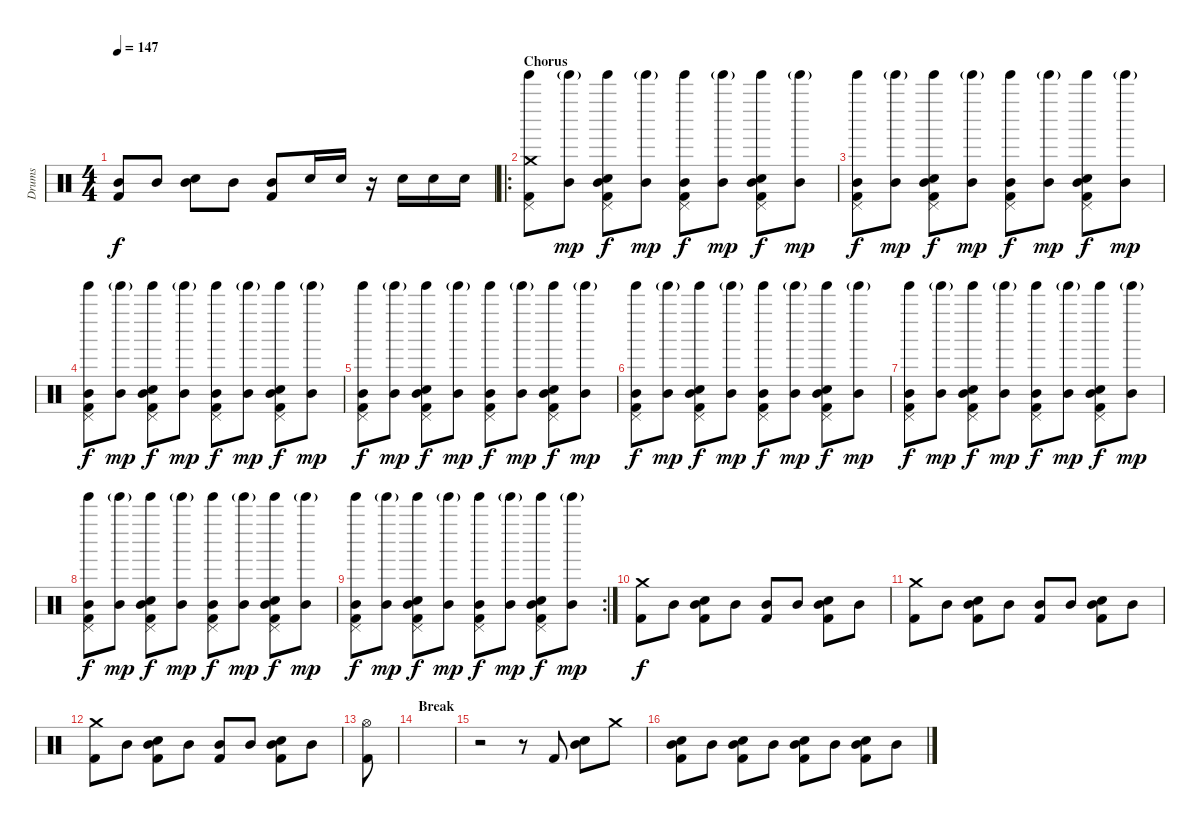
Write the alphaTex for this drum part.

\track ("Drums" "Drums") {instrument percussion}
\staff {score}
\articulation defaults
\ts (4 4)
\tempo 147
\clef neutral
\ks c
("Mid Tom (hit)" "Kick (hit) 2").8{dy f} "Mid Tom (hit)".8 ("Mid Tom (hit)" "Electric Snare (hit)").8 "Mid Tom (hit)".8 ("Mid Tom (hit)" "Kick (hit) 2").8 "Electric Snare (hit)".16 "Electric Snare (hit)".16 r.16 "Electric Snare (hit)".16 "Electric Snare (hit)".16 "Electric Snare (hit)".16 |
\ro
\section ("" "Chorus")
("Crash medium (hit)" "Tinkle Bell (hit)" "Pedal Hi-Hat (hit)" "Kick (hit) 2").8 ("Mid Tom (hit)" "Tinkle Bell (hit)"{g}).8{dy mp} ("Mid Tom (hit)" "Tinkle Bell (hit)" "Electric Snare (hit)" "Pedal Hi-Hat (hit)" "Kick (hit) 2").8{dy f} ("Mid Tom (hit)" "Tinkle Bell (hit)"{g}).8{dy mp} ("Mid Tom (hit)" "Tinkle Bell (hit)" "Pedal Hi-Hat (hit)" "Kick (hit) 2").8{dy f} ("Mid Tom (hit)" "Tinkle Bell (hit)"{g}).8{dy mp} ("Mid Tom (hit)" "Tinkle Bell (hit)" "Electric Snare (hit)" "Pedal Hi-Hat (hit)" "Kick (hit) 2").8{dy f} ("Mid Tom (hit)" "Tinkle Bell (hit)"{g}).8{dy mp} |
("Mid Tom (hit)" "Tinkle Bell (hit)" "Pedal Hi-Hat (hit)" "Kick (hit) 2").8{dy f} ("Mid Tom (hit)" "Tinkle Bell (hit)"{g}).8{dy mp} ("Mid Tom (hit)" "Tinkle Bell (hit)" "Electric Snare (hit)" "Pedal Hi-Hat (hit)" "Kick (hit) 2").8{dy f} ("Mid Tom (hit)" "Tinkle Bell (hit)"{g}).8{dy mp} ("Mid Tom (hit)" "Tinkle Bell (hit)" "Pedal Hi-Hat (hit)" "Kick (hit) 2").8{dy f} ("Mid Tom (hit)" "Tinkle Bell (hit)"{g}).8{dy mp} ("Mid Tom (hit)" "Tinkle Bell (hit)" "Electric Snare (hit)" "Pedal Hi-Hat (hit)" "Kick (hit) 2").8{dy f} ("Mid Tom (hit)" "Tinkle Bell (hit)"{g}).8{dy mp} |
("Mid Tom (hit)" "Tinkle Bell (hit)" "Pedal Hi-Hat (hit)" "Kick (hit) 2").8{dy f} ("Mid Tom (hit)" "Tinkle Bell (hit)"{g}).8{dy mp} ("Mid Tom (hit)" "Tinkle Bell (hit)" "Electric Snare (hit)" "Pedal Hi-Hat (hit)" "Kick (hit) 2").8{dy f} ("Mid Tom (hit)" "Tinkle Bell (hit)"{g}).8{dy mp} ("Mid Tom (hit)" "Tinkle Bell (hit)" "Pedal Hi-Hat (hit)" "Kick (hit) 2").8{dy f} ("Mid Tom (hit)" "Tinkle Bell (hit)"{g}).8{dy mp} ("Mid Tom (hit)" "Tinkle Bell (hit)" "Electric Snare (hit)" "Pedal Hi-Hat (hit)" "Kick (hit) 2").8{dy f} ("Mid Tom (hit)" "Tinkle Bell (hit)"{g}).8{dy mp} |
("Mid Tom (hit)" "Tinkle Bell (hit)" "Pedal Hi-Hat (hit)" "Kick (hit) 2").8{dy f} ("Mid Tom (hit)" "Tinkle Bell (hit)"{g}).8{dy mp} ("Mid Tom (hit)" "Tinkle Bell (hit)" "Electric Snare (hit)" "Pedal Hi-Hat (hit)" "Kick (hit) 2").8{dy f} ("Mid Tom (hit)" "Tinkle Bell (hit)"{g}).8{dy mp} ("Mid Tom (hit)" "Tinkle Bell (hit)" "Pedal Hi-Hat (hit)" "Kick (hit) 2").8{dy f} ("Mid Tom (hit)" "Tinkle Bell (hit)"{g}).8{dy mp} ("Mid Tom (hit)" "Tinkle Bell (hit)" "Electric Snare (hit)" "Pedal Hi-Hat (hit)" "Kick (hit) 2").8{dy f} ("Mid Tom (hit)" "Tinkle Bell (hit)"{g}).8{dy mp} |
("Mid Tom (hit)" "Tinkle Bell (hit)" "Pedal Hi-Hat (hit)" "Kick (hit) 2").8{dy f} ("Mid Tom (hit)" "Tinkle Bell (hit)"{g}).8{dy mp} ("Mid Tom (hit)" "Tinkle Bell (hit)" "Electric Snare (hit)" "Pedal Hi-Hat (hit)" "Kick (hit) 2").8{dy f} ("Mid Tom (hit)" "Tinkle Bell (hit)"{g}).8{dy mp} ("Mid Tom (hit)" "Tinkle Bell (hit)" "Pedal Hi-Hat (hit)" "Kick (hit) 2").8{dy f} ("Mid Tom (hit)" "Tinkle Bell (hit)"{g}).8{dy mp} ("Mid Tom (hit)" "Tinkle Bell (hit)" "Electric Snare (hit)" "Pedal Hi-Hat (hit)" "Kick (hit) 2").8{dy f} ("Mid Tom (hit)" "Tinkle Bell (hit)"{g}).8{dy mp} |
("Mid Tom (hit)" "Tinkle Bell (hit)" "Pedal Hi-Hat (hit)" "Kick (hit) 2").8{dy f} ("Mid Tom (hit)" "Tinkle Bell (hit)"{g}).8{dy mp} ("Mid Tom (hit)" "Tinkle Bell (hit)" "Electric Snare (hit)" "Pedal Hi-Hat (hit)" "Kick (hit) 2").8{dy f} ("Mid Tom (hit)" "Tinkle Bell (hit)"{g}).8{dy mp} ("Mid Tom (hit)" "Tinkle Bell (hit)" "Pedal Hi-Hat (hit)" "Kick (hit) 2").8{dy f} ("Mid Tom (hit)" "Tinkle Bell (hit)"{g}).8{dy mp} ("Mid Tom (hit)" "Tinkle Bell (hit)" "Electric Snare (hit)" "Pedal Hi-Hat (hit)" "Kick (hit) 2").8{dy f} ("Mid Tom (hit)" "Tinkle Bell (hit)"{g}).8{dy mp} |
("Mid Tom (hit)" "Tinkle Bell (hit)" "Pedal Hi-Hat (hit)" "Kick (hit) 2").8{dy f} ("Mid Tom (hit)" "Tinkle Bell (hit)"{g}).8{dy mp} ("Mid Tom (hit)" "Tinkle Bell (hit)" "Electric Snare (hit)" "Pedal Hi-Hat (hit)" "Kick (hit) 2").8{dy f} ("Mid Tom (hit)" "Tinkle Bell (hit)"{g}).8{dy mp} ("Mid Tom (hit)" "Tinkle Bell (hit)" "Pedal Hi-Hat (hit)" "Kick (hit) 2").8{dy f} ("Mid Tom (hit)" "Tinkle Bell (hit)"{g}).8{dy mp} ("Mid Tom (hit)" "Tinkle Bell (hit)" "Electric Snare (hit)" "Pedal Hi-Hat (hit)" "Kick (hit) 2").8{dy f} ("Mid Tom (hit)" "Tinkle Bell (hit)"{g}).8{dy mp} |
\rc 2
("Mid Tom (hit)" "Tinkle Bell (hit)" "Pedal Hi-Hat (hit)" "Kick (hit) 2").8{dy f} ("Mid Tom (hit)" "Tinkle Bell (hit)"{g}).8{dy mp} ("Mid Tom (hit)" "Tinkle Bell (hit)" "Electric Snare (hit)" "Pedal Hi-Hat (hit)" "Kick (hit) 2").8{dy f} ("Mid Tom (hit)" "Tinkle Bell (hit)"{g}).8{dy mp} ("Mid Tom (hit)" "Tinkle Bell (hit)" "Pedal Hi-Hat (hit)" "Kick (hit) 2").8{dy f} ("Mid Tom (hit)" "Tinkle Bell (hit)"{g}).8{dy mp} ("Mid Tom (hit)" "Tinkle Bell (hit)" "Electric Snare (hit)" "Pedal Hi-Hat (hit)" "Kick (hit) 2").8{dy f} ("Mid Tom (hit)" "Tinkle Bell (hit)"{g}).8{dy mp} |
("Crash medium (hit)" "Kick (hit) 2").8{dy f} "Mid Tom (hit)".8 ("Mid Tom (hit)" "Electric Snare (hit)" "Kick (hit) 2").8 "Mid Tom (hit)".8 ("Mid Tom (hit)" "Kick (hit) 2").8 "Mid Tom (hit)".8 ("Mid Tom (hit)" "Electric Snare (hit)" "Kick (hit) 2").8 "Mid Tom (hit)".8 |
("Crash medium (hit)" "Kick (hit) 2").8 "Mid Tom (hit)".8 ("Mid Tom (hit)" "Electric Snare (hit)" "Kick (hit) 2").8 "Mid Tom (hit)".8 ("Mid Tom (hit)" "Kick (hit) 2").8 "Mid Tom (hit)".8 ("Mid Tom (hit)" "Electric Snare (hit)" "Kick (hit) 2").8 "Mid Tom (hit)".8 |
("Crash medium (hit)" "Kick (hit) 2").8 "Mid Tom (hit)".8 ("Mid Tom (hit)" "Electric Snare (hit)" "Kick (hit) 2").8 "Mid Tom (hit)".8 ("Mid Tom (hit)" "Kick (hit) 2").8 "Mid Tom (hit)".8 ("Mid Tom (hit)" "Electric Snare (hit)" "Kick (hit) 2").8 "Mid Tom (hit)".8 |
("Hi-Hat (open)" "Kick (hit) 2").8 |
\section ("" "Break")
|
r.2 r.8 "Kick (hit) 2".8 ("Mid Tom (hit)" "Electric Snare (hit)").8 "Crash medium (hit)".8 |
("Mid Tom (hit)" "Hand Clap (hit)" "Kick (hit) 2").8 "Mid Tom (hit)".8 ("Mid Tom (hit)" "Electric Snare (hit)" "Kick (hit) 2").8 "Mid Tom (hit)".8 ("Mid Tom (hit)" "Hand Clap (hit)" "Kick (hit) 2").8 "Mid Tom (hit)".8 ("Mid Tom (hit)" "Electric Snare (hit)" "Kick (hit) 2").8 "Mid Tom (hit)".8
